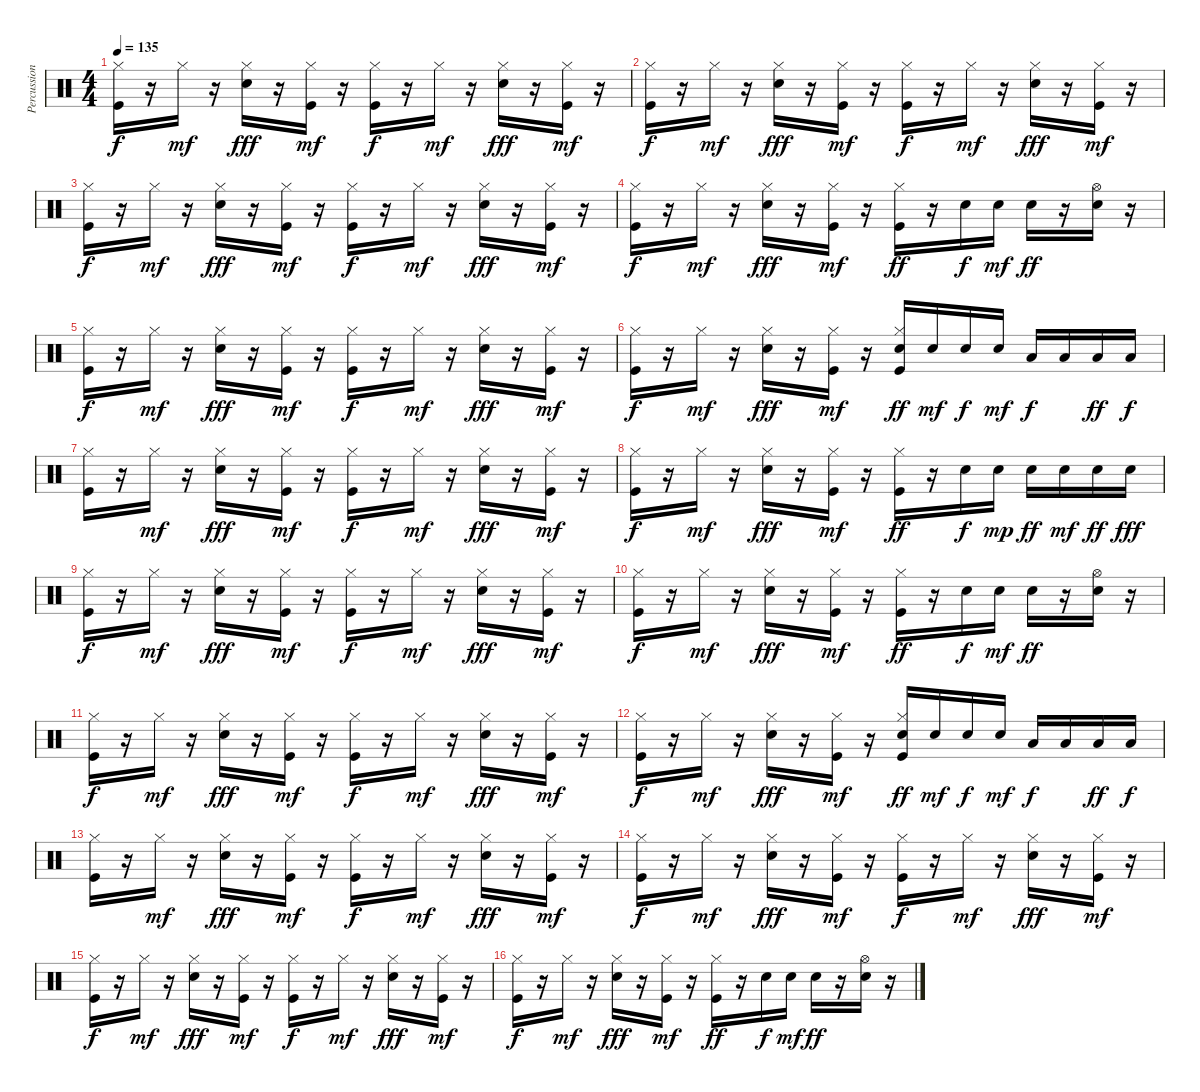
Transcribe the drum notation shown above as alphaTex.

\track ("Percussions" "Percussion") {instrument percussion}
\staff {score}
\articulation defaults
\ts (4 4)
\tempo 135
\clef neutral
\ks c
("Kick (hit)" "Hi-Hat (closed)").16{dy f} r.16 "Hi-Hat (closed)".16{dy mf} r.16 ("Snare (hit) 2" "Hi-Hat (closed)").16{dy fff} r.16 ("Kick (hit)" "Hi-Hat (closed)").16{dy mf} r.16 ("Kick (hit)" "Hi-Hat (closed)").16{dy f} r.16 "Hi-Hat (closed)".16{dy mf} r.16 ("Snare (hit) 2" "Hi-Hat (closed)").16{dy fff} r.16 ("Kick (hit)" "Hi-Hat (closed)").16{dy mf} r.16 |
("Kick (hit)" "Hi-Hat (closed)").16{dy f} r.16 "Hi-Hat (closed)".16{dy mf} r.16 ("Snare (hit) 2" "Hi-Hat (closed)").16{dy fff} r.16 ("Kick (hit)" "Hi-Hat (closed)").16{dy mf} r.16 ("Kick (hit)" "Hi-Hat (closed)").16{dy f} r.16 "Hi-Hat (closed)".16{dy mf} r.16 ("Snare (hit) 2" "Hi-Hat (closed)").16{dy fff} r.16 ("Kick (hit)" "Hi-Hat (closed)").16{dy mf} r.16 |
("Kick (hit)" "Hi-Hat (closed)").16{dy f} r.16 "Hi-Hat (closed)".16{dy mf} r.16 ("Snare (hit) 2" "Hi-Hat (closed)").16{dy fff} r.16 ("Kick (hit)" "Hi-Hat (closed)").16{dy mf} r.16 ("Kick (hit)" "Hi-Hat (closed)").16{dy f} r.16 "Hi-Hat (closed)".16{dy mf} r.16 ("Snare (hit) 2" "Hi-Hat (closed)").16{dy fff} r.16 ("Kick (hit)" "Hi-Hat (closed)").16{dy mf} r.16 |
("Kick (hit)" "Hi-Hat (closed)").16{dy f} r.16 "Hi-Hat (closed)".16{dy mf} r.16 ("Snare (hit) 2" "Hi-Hat (closed)").16{dy fff} r.16 ("Kick (hit)" "Hi-Hat (closed)").16{dy mf} r.16 ("Kick (hit)" "Hi-Hat (closed)").16{dy ff} r.16 "Snare (hit) 2".16{dy f} "Snare (hit) 2".16{dy mf} "Snare (hit) 2".16{dy ff} r.16 ("Snare (hit) 2" "Hi-Hat (open)").16 r.16 |
("Kick (hit)" "Hi-Hat (closed)").16{dy f} r.16 "Hi-Hat (closed)".16{dy mf} r.16 ("Snare (hit) 2" "Hi-Hat (closed)").16{dy fff} r.16 ("Kick (hit)" "Hi-Hat (closed)").16{dy mf} r.16 ("Kick (hit)" "Hi-Hat (closed)").16{dy f} r.16 "Hi-Hat (closed)".16{dy mf} r.16 ("Snare (hit) 2" "Hi-Hat (closed)").16{dy fff} r.16 ("Kick (hit)" "Hi-Hat (closed)").16{dy mf} r.16 |
("Kick (hit)" "Hi-Hat (closed)").16{dy f} r.16 "Hi-Hat (closed)".16{dy mf} r.16 ("Snare (hit) 2" "Hi-Hat (closed)").16{dy fff} r.16 ("Kick (hit)" "Hi-Hat (closed)").16{dy mf} r.16 ("Kick (hit)" "Snare (hit) 2" "Hi-Hat (closed)").16{dy ff} "Snare (hit) 2".16{dy mf} "Snare (hit) 2".16{dy f} "Snare (hit) 2".16{dy mf} "Low Tom (hit)".16{dy f} "Low Tom (hit)".16 "Low Tom (hit)".16{dy ff} "Low Tom (hit)".16{dy f} |
("Kick (hit)" "Hi-Hat (closed)").16 r.16 "Hi-Hat (closed)".16{dy mf} r.16 ("Snare (hit) 2" "Hi-Hat (closed)").16{dy fff} r.16 ("Kick (hit)" "Hi-Hat (closed)").16{dy mf} r.16 ("Kick (hit)" "Hi-Hat (closed)").16{dy f} r.16 "Hi-Hat (closed)".16{dy mf} r.16 ("Snare (hit) 2" "Hi-Hat (closed)").16{dy fff} r.16 ("Kick (hit)" "Hi-Hat (closed)").16{dy mf} r.16 |
("Kick (hit)" "Hi-Hat (closed)").16{dy f} r.16 "Hi-Hat (closed)".16{dy mf} r.16 ("Snare (hit) 2" "Hi-Hat (closed)").16{dy fff} r.16 ("Kick (hit)" "Hi-Hat (closed)").16{dy mf} r.16 ("Kick (hit)" "Hi-Hat (closed)").16{dy ff} r.16 "Snare (hit) 2".16{dy f} "Snare (hit) 2".16{dy mp} "Snare (hit) 2".16{dy ff} "Snare (hit) 2".16{dy mf} "Snare (hit) 2".16{dy ff} "Snare (hit) 2".16{dy fff} |
("Kick (hit)" "Hi-Hat (closed)").16{dy f} r.16 "Hi-Hat (closed)".16{dy mf} r.16 ("Snare (hit) 2" "Hi-Hat (closed)").16{dy fff} r.16 ("Kick (hit)" "Hi-Hat (closed)").16{dy mf} r.16 ("Kick (hit)" "Hi-Hat (closed)").16{dy f} r.16 "Hi-Hat (closed)".16{dy mf} r.16 ("Snare (hit) 2" "Hi-Hat (closed)").16{dy fff} r.16 ("Kick (hit)" "Hi-Hat (closed)").16{dy mf} r.16 |
("Kick (hit)" "Hi-Hat (closed)").16{dy f} r.16 "Hi-Hat (closed)".16{dy mf} r.16 ("Snare (hit) 2" "Hi-Hat (closed)").16{dy fff} r.16 ("Kick (hit)" "Hi-Hat (closed)").16{dy mf} r.16 ("Kick (hit)" "Hi-Hat (closed)").16{dy ff} r.16 "Snare (hit) 2".16{dy f} "Snare (hit) 2".16{dy mf} "Snare (hit) 2".16{dy ff} r.16 ("Snare (hit) 2" "Hi-Hat (open)").16 r.16 |
("Kick (hit)" "Hi-Hat (closed)").16{dy f} r.16 "Hi-Hat (closed)".16{dy mf} r.16 ("Snare (hit) 2" "Hi-Hat (closed)").16{dy fff} r.16 ("Kick (hit)" "Hi-Hat (closed)").16{dy mf} r.16 ("Kick (hit)" "Hi-Hat (closed)").16{dy f} r.16 "Hi-Hat (closed)".16{dy mf} r.16 ("Snare (hit) 2" "Hi-Hat (closed)").16{dy fff} r.16 ("Kick (hit)" "Hi-Hat (closed)").16{dy mf} r.16 |
("Kick (hit)" "Hi-Hat (closed)").16{dy f} r.16 "Hi-Hat (closed)".16{dy mf} r.16 ("Snare (hit) 2" "Hi-Hat (closed)").16{dy fff} r.16 ("Kick (hit)" "Hi-Hat (closed)").16{dy mf} r.16 ("Kick (hit)" "Snare (hit) 2" "Hi-Hat (closed)").16{dy ff} "Snare (hit) 2".16{dy mf} "Snare (hit) 2".16{dy f} "Snare (hit) 2".16{dy mf} "Low Tom (hit)".16{dy f} "Low Tom (hit)".16 "Low Tom (hit)".16{dy ff} "Low Tom (hit)".16{dy f} |
("Kick (hit)" "Hi-Hat (closed)").16 r.16 "Hi-Hat (closed)".16{dy mf} r.16 ("Snare (hit) 2" "Hi-Hat (closed)").16{dy fff} r.16 ("Kick (hit)" "Hi-Hat (closed)").16{dy mf} r.16 ("Kick (hit)" "Hi-Hat (closed)").16{dy f} r.16 "Hi-Hat (closed)".16{dy mf} r.16 ("Snare (hit) 2" "Hi-Hat (closed)").16{dy fff} r.16 ("Kick (hit)" "Hi-Hat (closed)").16{dy mf} r.16 |
("Kick (hit)" "Hi-Hat (closed)").16{dy f} r.16 "Hi-Hat (closed)".16{dy mf} r.16 ("Snare (hit) 2" "Hi-Hat (closed)").16{dy fff} r.16 ("Kick (hit)" "Hi-Hat (closed)").16{dy mf} r.16 ("Kick (hit)" "Hi-Hat (closed)").16{dy f} r.16 "Hi-Hat (closed)".16{dy mf} r.16 ("Snare (hit) 2" "Hi-Hat (closed)").16{dy fff} r.16 ("Kick (hit)" "Hi-Hat (closed)").16{dy mf} r.16 |
("Kick (hit)" "Hi-Hat (closed)").16{dy f} r.16 "Hi-Hat (closed)".16{dy mf} r.16 ("Snare (hit) 2" "Hi-Hat (closed)").16{dy fff} r.16 ("Kick (hit)" "Hi-Hat (closed)").16{dy mf} r.16 ("Kick (hit)" "Hi-Hat (closed)").16{dy f} r.16 "Hi-Hat (closed)".16{dy mf} r.16 ("Snare (hit) 2" "Hi-Hat (closed)").16{dy fff} r.16 ("Kick (hit)" "Hi-Hat (closed)").16{dy mf} r.16 |
("Kick (hit)" "Hi-Hat (closed)").16{dy f} r.16 "Hi-Hat (closed)".16{dy mf} r.16 ("Snare (hit) 2" "Hi-Hat (closed)").16{dy fff} r.16 ("Kick (hit)" "Hi-Hat (closed)").16{dy mf} r.16 ("Kick (hit)" "Hi-Hat (closed)").16{dy ff} r.16 "Snare (hit) 2".16{dy f} "Snare (hit) 2".16{dy mf} "Snare (hit) 2".16{dy ff} r.16 ("Snare (hit) 2" "Hi-Hat (open)").16 r.16
